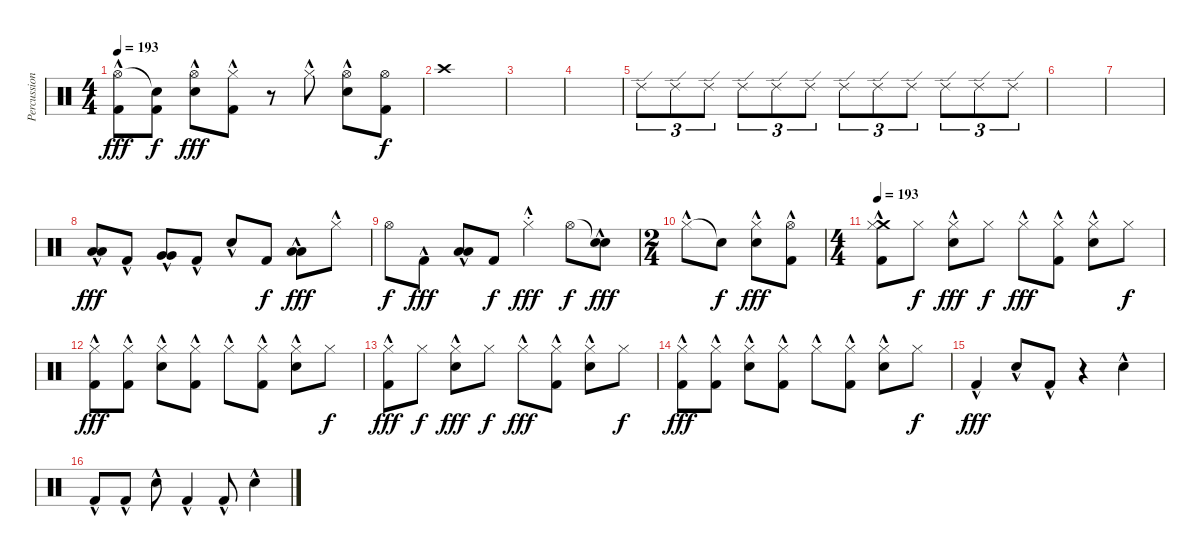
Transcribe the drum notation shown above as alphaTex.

\track ("Percussion" "Percussion") {instrument percussion}
\staff {score}
\articulation defaults
\ts (4 4)
\tempo 193
\clef neutral
\ks c
("Hi-Hat (open)"{hac} "Kick (hit) 2"{hac}).8{dy fff} ("Snare (hit)"{t} "Kick (hit) 2").8{dy f} ("Hi-Hat (open)"{hac} "Electric Snare (hit)"{hac}).8{dy fff} ("Hi-Hat (closed)"{hac} "Kick (hit) 2"{hac}).8 r.8 "Hi-Hat (closed)"{hac}.8 ("Hi-Hat (open)"{hac} "Electric Snare (hit)"{hac}).8 ("Hi-Hat (open)" "Kick (hit) 2").8{dy f} |
"Crash high (hit)".1 |
|
|
"Ride (edge) 2".8{tu (3 2) volume 16} "Ride (edge) 2".8{tu (3 2)} "Ride (edge) 2".8{tu (3 2)} "Ride (edge) 2".8{tu (3 2)} "Ride (edge) 2".8{tu (3 2)} "Ride (edge) 2".8{tu (3 2)} "Ride (edge) 2".8{tu (3 2)} "Ride (edge) 2".8{tu (3 2)} "Ride (edge) 2".8{tu (3 2)} "Ride (edge) 2".8{tu (3 2)} "Ride (edge) 2".8{tu (3 2)} "Ride (edge) 2".8{tu (3 2)} |
|
|
("Low Tom (hit)" "Low Tom (hit)"{hac}).8{bd 480 dy fff} "Kick (hit) 2"{hac}.8 ("Very Low Tom (hit)" "Very Low Tom (hit)"{hac}).8{bd 480} "Kick (hit) 2"{hac}.8 "Electric Snare (hit)"{hac}.8 "Kick (hit) 2".8{dy f} ("Low Floor Tom (hit)" "Low Floor Tom (hit)"{hac}).8{bd 480 dy fff} "Hi-Hat (closed)"{hac}.8 |
"Hi-Hat (open)".8{dy f} "Kick (hit) 2"{hac}.8{dy fff} ("Low Floor Tom (hit)" "Low Floor Tom (hit)"{hac}).8{bd 480} "Kick (hit) 2".8{dy f} "Hi-Hat (closed)"{hac st}.4{dy fff} "Hi-Hat (open)".8{dy f} ("Snare (hit)"{t} "Electric Snare (hit)"{hac}).8{dy fff} |
\ts (2 4)
"Hi-Hat (closed)"{hac}.8 "Snare (hit)"{t}.8{dy f} ("Hi-Hat (closed)"{hac} "Electric Snare (hit)"{hac}).8{dy fff} ("Hi-Hat (open)"{hac} "Kick (hit) 2").8 |
\ts (4 4)
\tempo 193
("Crash medium (hit)"{hac} "Hi-Hat (closed)"{hac} "Kick (hit) 2"{hac}).8 "Hi-Hat (closed)".8{dy f} ("Hi-Hat (closed)"{hac} "Electric Snare (hit)"{hac}).8{dy fff} "Hi-Hat (closed)".8{dy f} "Hi-Hat (closed)"{hac}.8{dy fff} ("Hi-Hat (closed)" "Kick (hit) 2"{hac}).8 ("Hi-Hat (closed)"{hac} "Electric Snare (hit)"{hac}).8 "Hi-Hat (closed)".8{dy f} |
("Hi-Hat (closed)"{hac} "Kick (hit) 2"{hac}).8{dy fff} ("Hi-Hat (closed)" "Kick (hit) 2"{hac}).8 ("Hi-Hat (closed)"{hac} "Electric Snare (hit)"{hac}).8 ("Hi-Hat (closed)" "Kick (hit) 2"{hac}).8 "Hi-Hat (closed)"{hac}.8 ("Hi-Hat (closed)" "Kick (hit) 2"{hac}).8 ("Hi-Hat (closed)"{hac} "Electric Snare (hit)"{hac}).8 "Hi-Hat (closed)".8{dy f} |
("Hi-Hat (closed)"{hac} "Kick (hit) 2"{hac}).8{dy fff} "Hi-Hat (closed)".8{dy f} ("Hi-Hat (closed)"{hac} "Electric Snare (hit)"{hac}).8{dy fff} "Hi-Hat (closed)".8{dy f} "Hi-Hat (closed)"{hac}.8{dy fff} ("Hi-Hat (closed)" "Kick (hit) 2"{hac}).8 ("Hi-Hat (closed)"{hac} "Electric Snare (hit)"{hac}).8 "Hi-Hat (closed)".8{dy f} |
("Hi-Hat (closed)"{hac} "Kick (hit) 2"{hac}).8{dy fff} ("Hi-Hat (closed)" "Kick (hit) 2"{hac}).8 ("Hi-Hat (closed)"{hac} "Electric Snare (hit)"{hac}).8 ("Hi-Hat (closed)" "Kick (hit) 2"{hac}).8 "Hi-Hat (closed)"{hac}.8 ("Hi-Hat (closed)" "Kick (hit) 2"{hac}).8 ("Hi-Hat (closed)"{hac} "Electric Snare (hit)"{hac}).8 "Hi-Hat (closed)".8{dy f} |
"Kick (hit) 2"{hac}.4{dy fff} "Electric Snare (hit)"{hac}.8 "Kick (hit) 2"{hac}.8 r.4 "Electric Snare (hit)"{hac}.4 |
"Kick (hit) 2"{hac}.8 "Kick (hit) 2"{hac}.8 "Electric Snare (hit)"{hac}.8 "Kick (hit) 2"{hac}.4 "Kick (hit) 2"{hac}.8 "Electric Snare (hit)"{hac}.4
